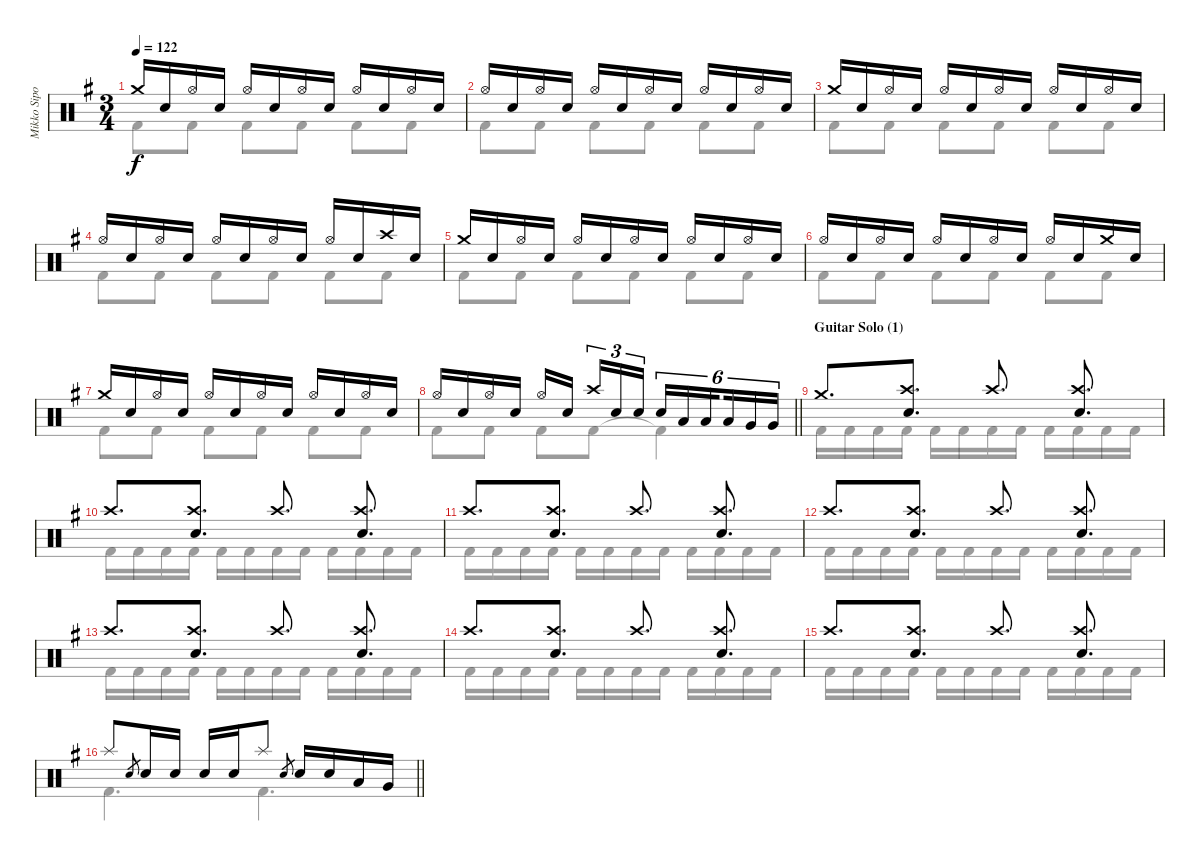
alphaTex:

\track ("Mikko Sipola - drums" "Mikko Sipo") {instrument percussion}
\staff {score}
\articulation defaults
\voice
\ts (3 4)
\tempo 122
\clef neutral
\ks eminor "Crash medium (hit)".16{dy f} "Electric Snare (hit)".16 "Hi-Hat (open)".16 "Electric Snare (hit)".16 "Hi-Hat (open)".16 "Electric Snare (hit)".16 "Hi-Hat (open)".16 "Electric Snare (hit)".16 "Hi-Hat (open)".16 "Electric Snare (hit)".16 "Hi-Hat (open)".16 "Electric Snare (hit)".16
|
"Hi-Hat (open)".16 "Electric Snare (hit)".16 "Hi-Hat (open)".16 "Electric Snare (hit)".16 "Hi-Hat (open)".16 "Electric Snare (hit)".16 "Hi-Hat (open)".16 "Electric Snare (hit)".16 "Hi-Hat (open)".16 "Electric Snare (hit)".16 "Hi-Hat (open)".16 "Electric Snare (hit)".16 |
"Crash medium (hit)".16 "Electric Snare (hit)".16 "Hi-Hat (open)".16 "Electric Snare (hit)".16 "Hi-Hat (open)".16 "Electric Snare (hit)".16 "Hi-Hat (open)".16 "Electric Snare (hit)".16 "Hi-Hat (open)".16 "Electric Snare (hit)".16 "Hi-Hat (open)".16 "Electric Snare (hit)".16 |
"Hi-Hat (open)".16 "Electric Snare (hit)".16 "Hi-Hat (open)".16 "Electric Snare (hit)".16 "Hi-Hat (open)".16 "Electric Snare (hit)".16 "Hi-Hat (open)".16 "Electric Snare (hit)".16 "Hi-Hat (open)".16 "Electric Snare (hit)".16 "Crash high (hit)".16 "Electric Snare (hit)".16 |
"Crash medium (hit)".16 "Electric Snare (hit)".16 "Hi-Hat (open)".16 "Electric Snare (hit)".16 "Hi-Hat (open)".16 "Electric Snare (hit)".16 "Hi-Hat (open)".16 "Electric Snare (hit)".16 "Hi-Hat (open)".16 "Electric Snare (hit)".16 "Hi-Hat (open)".16 "Electric Snare (hit)".16 |
"Hi-Hat (open)".16 "Electric Snare (hit)".16 "Hi-Hat (open)".16 "Electric Snare (hit)".16 "Hi-Hat (open)".16 "Electric Snare (hit)".16 "Hi-Hat (open)".16 "Electric Snare (hit)".16 "Hi-Hat (open)".16 "Electric Snare (hit)".16 "Crash medium (hit)".16 "Electric Snare (hit)".16 |
"Crash medium (hit)".16 "Electric Snare (hit)".16 "Hi-Hat (open)".16 "Electric Snare (hit)".16 "Hi-Hat (open)".16 "Electric Snare (hit)".16 "Hi-Hat (open)".16 "Electric Snare (hit)".16 "Hi-Hat (open)".16 "Electric Snare (hit)".16 "Hi-Hat (open)".16 "Electric Snare (hit)".16 |
\barLineRight lightlight "Hi-Hat (open)".16 "Electric Snare (hit)".16 "Hi-Hat (open)".16 "Electric Snare (hit)".16 "Hi-Hat (open)".16 "Electric Snare (hit)".16{beam splitsecondary} "Crash high (hit)".16{tu (3 2)} "Electric Snare (hit)".16{tu (3 2)} "Electric Snare (hit)".16{tu (3 2)} "Electric Snare (hit)".16{tu (6 4)} "Low Tom (hit)".16{tu (6 4)} "Low Tom (hit)".16{tu (6 4) beam splitsecondary} "Low Tom (hit)".16{tu (6 4)} "Very Low Tom (hit)".16{tu (6 4)} "Very Low Tom (hit)".16{tu (6 4)}
|
\section ("" "Guitar Solo (1)")
"Crash medium (hit)".8{d} ("Crash high (hit)" "Electric Snare (hit)").8{d} "Crash high (hit)".8{d} ("Crash high (hit)" "Electric Snare (hit)").8{d} |
"Crash high (hit)".8{d} ("Crash high (hit)" "Electric Snare (hit)").8{d} "Crash high (hit)".8{d} ("Crash high (hit)" "Electric Snare (hit)").8{d} |
"Crash high (hit)".8{d} ("Crash high (hit)" "Electric Snare (hit)").8{d} "Crash high (hit)".8{d} ("Crash high (hit)" "Electric Snare (hit)").8{d} |
"Crash high (hit)".8{d} ("Crash high (hit)" "Electric Snare (hit)").8{d} "Crash high (hit)".8{d} ("Crash high (hit)" "Electric Snare (hit)").8{d} |
"Crash high (hit)".8{d} ("Crash high (hit)" "Electric Snare (hit)").8{d} "Crash high (hit)".8{d} ("Crash high (hit)" "Electric Snare (hit)").8{d} |
"Crash high (hit)".8{d} ("Crash high (hit)" "Electric Snare (hit)").8{d} "Crash high (hit)".8{d} ("Crash high (hit)" "Electric Snare (hit)").8{d} |
"Crash high (hit)".8{d} ("Crash high (hit)" "Electric Snare (hit)").8{d} "Crash high (hit)".8{d} ("Crash high (hit)" "Electric Snare (hit)").8{d} |
\barLineRight lightlight "Splash (hit)".8 "Electric Snare (hit)".8{gr} "Electric Snare (hit)".16 "Electric Snare (hit)".16 "Electric Snare (hit)".16 "Electric Snare (hit)".16 "Splash (hit)".8 "Electric Snare (hit)".8{gr} "Electric Snare (hit)".16 "Electric Snare (hit)".16 "Low Tom (hit)".16 "Very Low Tom (hit)".16
\voice
\clef neutral
\ottava regular
\simile none
\ks eminor "Kick (hit) 2".8{dy f} "Kick (hit) 2".8 "Kick (hit) 2".8 "Kick (hit) 2".8 "Kick (hit) 2".8 "Kick (hit) 2".8
|
"Kick (hit) 2".8 "Kick (hit) 2".8 "Kick (hit) 2".8 "Kick (hit) 2".8 "Kick (hit) 2".8 "Kick (hit) 2".8 |
"Kick (hit) 2".8 "Kick (hit) 2".8 "Kick (hit) 2".8 "Kick (hit) 2".8 "Kick (hit) 2".8 "Kick (hit) 2".8 |
"Kick (hit) 2".8 "Kick (hit) 2".8 "Kick (hit) 2".8 "Kick (hit) 2".8 "Kick (hit) 2".8 "Kick (hit) 2".8 |
"Kick (hit) 2".8 "Kick (hit) 2".8 "Kick (hit) 2".8 "Kick (hit) 2".8 "Kick (hit) 2".8 "Kick (hit) 2".8 |
"Kick (hit) 2".8 "Kick (hit) 2".8 "Kick (hit) 2".8 "Kick (hit) 2".8 "Kick (hit) 2".8 "Kick (hit) 2".8 |
"Kick (hit) 2".8 "Kick (hit) 2".8 "Kick (hit) 2".8 "Kick (hit) 2".8 "Kick (hit) 2".8 "Kick (hit) 2".8 |
\barLineRight lightlight "Kick (hit) 2".8 "Kick (hit) 2".8 "Kick (hit) 2".8 "Kick (hit) 2".8 "Kick (hit) 2"{t}.4
|
"Kick (hit) 2".16 "Kick (hit) 2".16 "Kick (hit) 2".16 "Kick (hit) 2".16 "Kick (hit) 2".16 "Kick (hit) 2".16 "Kick (hit) 2".16 "Kick (hit) 2".16 "Kick (hit) 2".16 "Kick (hit) 2".16 "Kick (hit) 2".16 "Kick (hit) 2".16 |
"Kick (hit) 2".16 "Kick (hit) 2".16 "Kick (hit) 2".16 "Kick (hit) 2".16 "Kick (hit) 2".16 "Kick (hit) 2".16 "Kick (hit) 2".16 "Kick (hit) 2".16 "Kick (hit) 2".16 "Kick (hit) 2".16 "Kick (hit) 2".16 "Kick (hit) 2".16 |
"Kick (hit) 2".16 "Kick (hit) 2".16 "Kick (hit) 2".16 "Kick (hit) 2".16 "Kick (hit) 2".16 "Kick (hit) 2".16 "Kick (hit) 2".16 "Kick (hit) 2".16 "Kick (hit) 2".16 "Kick (hit) 2".16 "Kick (hit) 2".16 "Kick (hit) 2".16 |
"Kick (hit) 2".16 "Kick (hit) 2".16 "Kick (hit) 2".16 "Kick (hit) 2".16 "Kick (hit) 2".16 "Kick (hit) 2".16 "Kick (hit) 2".16 "Kick (hit) 2".16 "Kick (hit) 2".16 "Kick (hit) 2".16 "Kick (hit) 2".16 "Kick (hit) 2".16 |
"Kick (hit) 2".16 "Kick (hit) 2".16 "Kick (hit) 2".16 "Kick (hit) 2".16 "Kick (hit) 2".16 "Kick (hit) 2".16 "Kick (hit) 2".16 "Kick (hit) 2".16 "Kick (hit) 2".16 "Kick (hit) 2".16 "Kick (hit) 2".16 "Kick (hit) 2".16 |
"Kick (hit) 2".16 "Kick (hit) 2".16 "Kick (hit) 2".16 "Kick (hit) 2".16 "Kick (hit) 2".16 "Kick (hit) 2".16 "Kick (hit) 2".16 "Kick (hit) 2".16 "Kick (hit) 2".16 "Kick (hit) 2".16 "Kick (hit) 2".16 "Kick (hit) 2".16 |
"Kick (hit) 2".16 "Kick (hit) 2".16 "Kick (hit) 2".16 "Kick (hit) 2".16 "Kick (hit) 2".16 "Kick (hit) 2".16 "Kick (hit) 2".16 "Kick (hit) 2".16 "Kick (hit) 2".16 "Kick (hit) 2".16 "Kick (hit) 2".16 "Kick (hit) 2".16 |
\barLineRight lightlight "Kick (hit) 2".4{d} "Kick (hit) 2".4{d}
